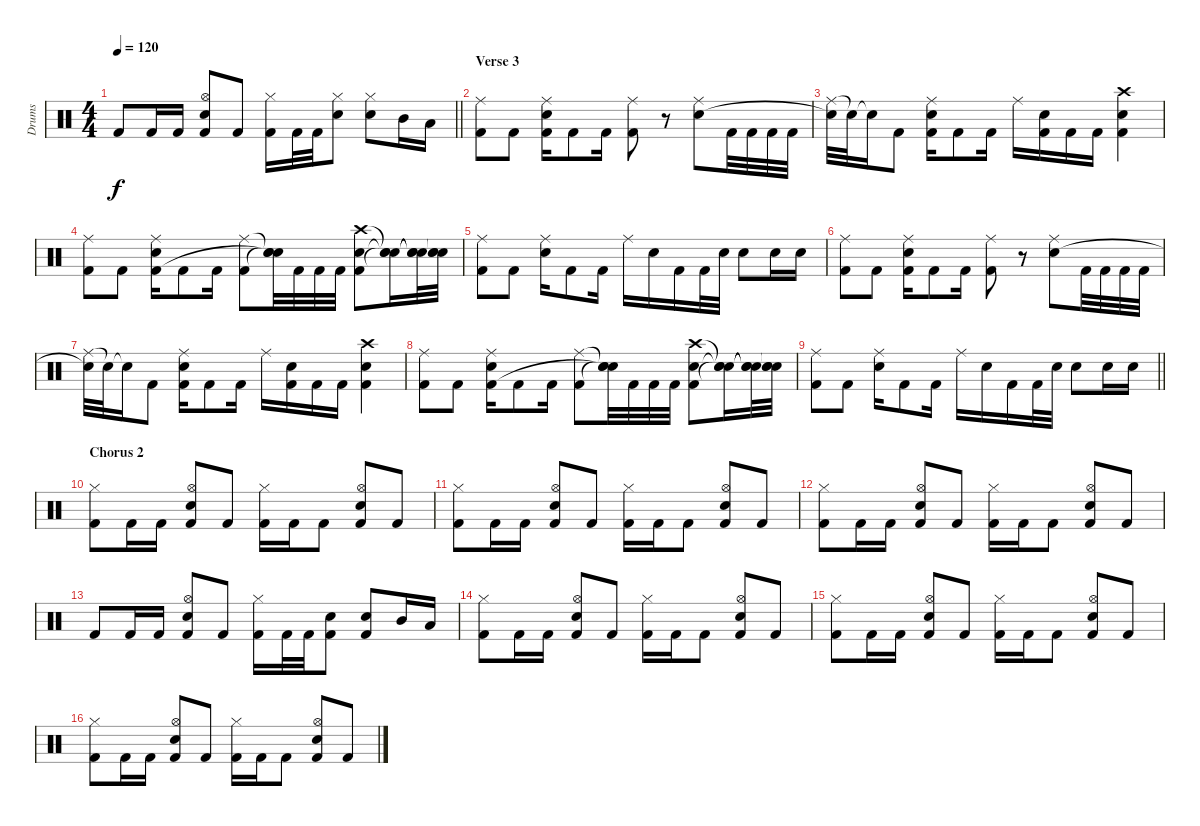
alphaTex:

\track ("Drums" "Drums") {instrument percussion}
\staff {score}
\articulation defaults
\ts (4 4)
\tempo 120
\clef neutral
\barLineRight lightlight
\ks c "Kick (hit) 2".8{dy f} "Kick (hit) 2".16 "Kick (hit) 2".16
("Hi-Hat (open)" "Electric Snare (hit)" "Kick (hit) 2").8 "Kick (hit) 2".8 ("Hi-Hat (closed)" "Kick (hit) 2").16 "Kick (hit) 2".32 "Kick (hit) 2".32 ("Hi-Hat (closed)" "Electric Snare (hit)").8 ("Hi-Hat (closed)" "Electric Snare (hit)").8 "Mid Tom (hit)".16 "Low Tom (hit)".16 |
\section ("" "Verse 3")
("Ride (middle)" "Kick (hit) 2").8 "Kick (hit) 2".8 ("Ride (middle)" "Electric Snare (hit)" "Kick (hit) 2").16 "Kick (hit) 2".8 "Kick (hit) 2".16 ("Ride (middle)" "Kick (hit) 2").8 r.8 ("Ride (middle)" "Electric Snare (hit)").8 "Kick (hit) 2".32 "Kick (hit) 2".32 "Kick (hit) 2".32 "Kick (hit) 2".32 |
("Ride (middle)" "Snare (hit)"{t}).32 "Snare (hit)"{t}.32 "Snare (hit)"{t}.16 "Kick (hit) 2".8 ("Ride (middle)" "Electric Snare (hit)" "Kick (hit) 2").16 "Kick (hit) 2".8 "Kick (hit) 2".16 "Ride (middle)".16 ("Electric Snare (hit)" "Kick (hit) 2").16 "Kick (hit) 2".16 "Kick (hit) 2".16 ("Crash high (hit)" "Electric Snare (hit)" "Kick (hit) 2").4 |
("Ride (middle)" "Kick (hit) 2").8 "Kick (hit) 2".8 ("Ride (middle)" "Electric Snare (hit)" "Kick (hit) 2").16 "Kick (hit) 2".8 "Kick (hit) 2".16 ("Ride (middle)" "Kick (hit) 2").8 ("Snare (hit)"{t} "Snare (hit)"{t} "Snare (hit)"{t}).32 "Kick (hit) 2".32 "Kick (hit) 2".32 "Kick (hit) 2".32 ("Crash high (hit)" "Electric Snare (hit)" "Kick (hit) 2").8 ("Snare (hit)"{t} "Snare (hit)"{t} "Snare (hit)"{t}).16 ("Snare (hit)"{t} "Snare (hit)"{t} "Snare (hit)"{t}).32 ("Snare (hit)"{t} "Snare (hit)"{t} "Snare (hit)"{t}).32 |
("Ride (middle)" "Kick (hit) 2").8 "Kick (hit) 2".8 ("Ride (middle)" "Electric Snare (hit)").16 "Kick (hit) 2".8 "Kick (hit) 2".16 "Ride (middle)".16 "Electric Snare (hit)".16 "Kick (hit) 2".16 "Kick (hit) 2".32 "Electric Snare (hit)".32 "Electric Snare (hit)".8 "Electric Snare (hit)".16 "Electric Snare (hit)".16 |
("Ride (middle)" "Kick (hit) 2").8 "Kick (hit) 2".8 ("Ride (middle)" "Electric Snare (hit)" "Kick (hit) 2").16 "Kick (hit) 2".8 "Kick (hit) 2".16 ("Ride (middle)" "Kick (hit) 2").8 r.8 ("Ride (middle)" "Electric Snare (hit)").8 "Kick (hit) 2".32 "Kick (hit) 2".32 "Kick (hit) 2".32 "Kick (hit) 2".32 |
("Ride (middle)" "Snare (hit)"{t}).32 "Snare (hit)"{t}.32 "Snare (hit)"{t}.16 "Kick (hit) 2".8 ("Ride (middle)" "Electric Snare (hit)" "Kick (hit) 2").16 "Kick (hit) 2".8 "Kick (hit) 2".16 "Ride (middle)".16 ("Electric Snare (hit)" "Kick (hit) 2").16 "Kick (hit) 2".16 "Kick (hit) 2".16 ("Crash high (hit)" "Electric Snare (hit)" "Kick (hit) 2").4 |
("Ride (middle)" "Kick (hit) 2").8 "Kick (hit) 2".8 ("Ride (middle)" "Electric Snare (hit)" "Kick (hit) 2").16 "Kick (hit) 2".8 "Kick (hit) 2".16 ("Ride (middle)" "Kick (hit) 2").8 ("Snare (hit)"{t} "Snare (hit)"{t} "Snare (hit)"{t}).32 "Kick (hit) 2".32 "Kick (hit) 2".32 "Kick (hit) 2".32 ("Crash high (hit)" "Electric Snare (hit)" "Kick (hit) 2").8 ("Snare (hit)"{t} "Snare (hit)"{t} "Snare (hit)"{t}).16 ("Snare (hit)"{t} "Snare (hit)"{t} "Snare (hit)"{t}).32 ("Snare (hit)"{t} "Snare (hit)"{t} "Snare (hit)"{t}).32 |
\barLineRight lightlight
("Ride (middle)" "Kick (hit) 2").8 "Kick (hit) 2".8 ("Ride (middle)" "Electric Snare (hit)").16 "Kick (hit) 2".8 "Kick (hit) 2".16 "Ride (middle)".16 "Electric Snare (hit)".16 "Kick (hit) 2".16 "Kick (hit) 2".32 "Electric Snare (hit)".32 "Electric Snare (hit)".8 "Electric Snare (hit)".16 "Electric Snare (hit)".16 |
\section ("" "Chorus 2")
("Hi-Hat (closed)" "Kick (hit) 2").8 "Kick (hit) 2".16 "Kick (hit) 2".16 ("Hi-Hat (open)" "Electric Snare (hit)" "Kick (hit) 2").8 "Kick (hit) 2".8 ("Hi-Hat (closed)" "Kick (hit) 2").16 "Kick (hit) 2".16 "Kick (hit) 2".8 ("Hi-Hat (open)" "Electric Snare (hit)" "Kick (hit) 2").8 "Kick (hit) 2".8 |
("Hi-Hat (closed)" "Kick (hit) 2").8 "Kick (hit) 2".16 "Kick (hit) 2".16 ("Hi-Hat (open)" "Electric Snare (hit)" "Kick (hit) 2").8 "Kick (hit) 2".8 ("Hi-Hat (closed)" "Kick (hit) 2").16 "Kick (hit) 2".16 "Kick (hit) 2".8 ("Hi-Hat (open)" "Electric Snare (hit)" "Kick (hit) 2").8 "Kick (hit) 2".8 |
("Hi-Hat (closed)" "Kick (hit) 2").8 "Kick (hit) 2".16 "Kick (hit) 2".16 ("Hi-Hat (open)" "Electric Snare (hit)" "Kick (hit) 2").8 "Kick (hit) 2".8 ("Hi-Hat (closed)" "Kick (hit) 2").16 "Kick (hit) 2".16 "Kick (hit) 2".8 ("Hi-Hat (open)" "Electric Snare (hit)" "Kick (hit) 2").8 "Kick (hit) 2".8 |
"Kick (hit) 2".8 "Kick (hit) 2".16 "Kick (hit) 2".16 ("Hi-Hat (open)" "Electric Snare (hit)" "Kick (hit) 2").8 "Kick (hit) 2".8 ("Hi-Hat (closed)" "Kick (hit) 2").16 "Kick (hit) 2".32 "Kick (hit) 2".32 ("Electric Snare (hit)" "Kick (hit) 2").8 ("Electric Snare (hit)" "Kick (hit) 2").8 "Mid Tom (hit)".16 "Low Tom (hit)".16 |
("Hi-Hat (closed)" "Kick (hit) 2").8 "Kick (hit) 2".16 "Kick (hit) 2".16 ("Hi-Hat (open)" "Electric Snare (hit)" "Kick (hit) 2").8 "Kick (hit) 2".8 ("Hi-Hat (closed)" "Kick (hit) 2").16 "Kick (hit) 2".16 "Kick (hit) 2".8 ("Hi-Hat (open)" "Electric Snare (hit)" "Kick (hit) 2").8 "Kick (hit) 2".8 |
("Hi-Hat (closed)" "Kick (hit) 2").8 "Kick (hit) 2".16 "Kick (hit) 2".16 ("Hi-Hat (open)" "Electric Snare (hit)" "Kick (hit) 2").8 "Kick (hit) 2".8 ("Hi-Hat (closed)" "Kick (hit) 2").16 "Kick (hit) 2".16 "Kick (hit) 2".8 ("Hi-Hat (open)" "Electric Snare (hit)" "Kick (hit) 2").8 "Kick (hit) 2".8 |
("Hi-Hat (closed)" "Kick (hit) 2").8 "Kick (hit) 2".16 "Kick (hit) 2".16 ("Hi-Hat (open)" "Electric Snare (hit)" "Kick (hit) 2").8 "Kick (hit) 2".8 ("Hi-Hat (closed)" "Kick (hit) 2").16 "Kick (hit) 2".16 "Kick (hit) 2".8 ("Hi-Hat (open)" "Electric Snare (hit)" "Kick (hit) 2").8 "Kick (hit) 2".8
